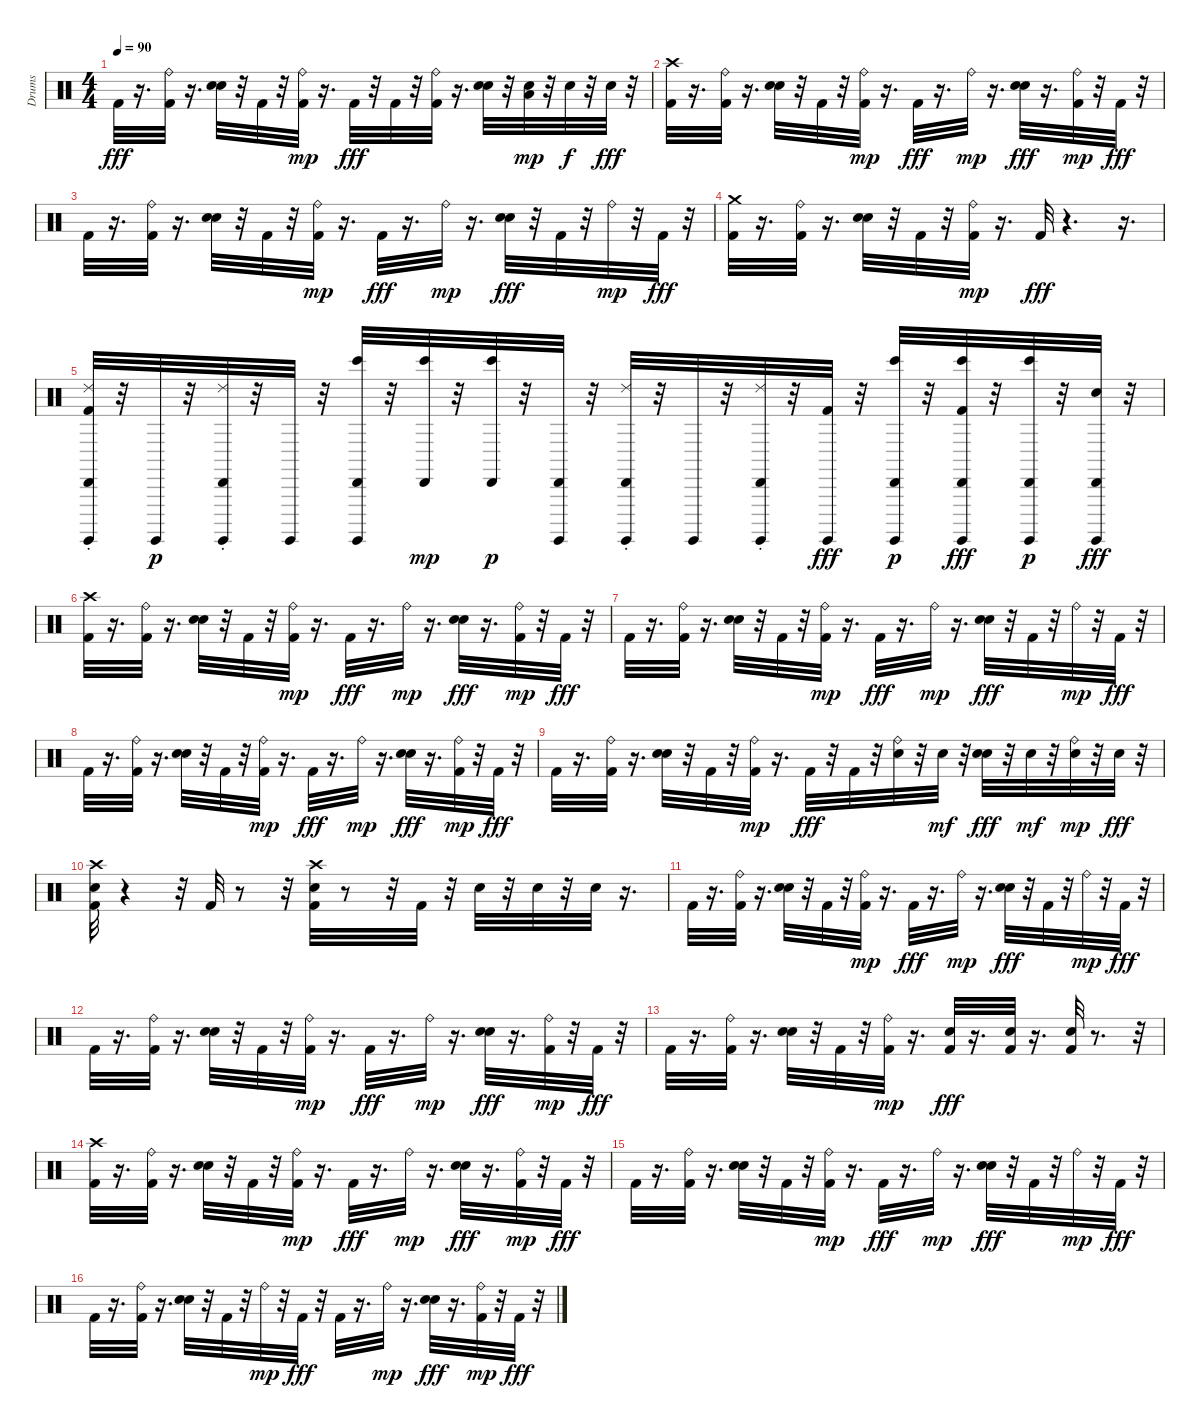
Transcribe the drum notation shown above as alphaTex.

\track ("Drums" "Drums") {instrument percussion}
\staff {score}
\articulation defaults
\ts (4 4)
\tempo 90
\clef neutral
\ks c "Kick (hit) 2".32{dy fff}
r.16{d} ("Ride (bell)" "Kick (hit) 2").32 r.16{d} ("Hand Clap (hit)" "Electric Snare (hit)").32 r.32 "Kick (hit) 2".32 r.32 ("Ride (bell)" "Kick (hit) 2").32{dy mp} r.16{d} "Kick (hit) 2".32{dy fff} r.32 "Kick (hit) 2".32 r.32 ("Ride (bell)" "Kick (hit) 2").32 r.16{d} ("Hand Clap (hit)" "Electric Snare (hit)").32 r.32 ("Low Tom (hit)" "Electric Snare (hit)").32{dy mp} r.32 "Electric Snare (hit)".32{dy f} r.32 "Electric Snare (hit)".32{dy fff} r.32 |
("Crash high (hit)" "Kick (hit) 2").32 r.16{d} ("Ride (bell)" "Kick (hit) 2").32 r.16{d} ("Hand Clap (hit)" "Electric Snare (hit)").32 r.32 "Kick (hit) 2".32 r.32 ("Ride (bell)" "Kick (hit) 2").32{dy mp} r.16{d} "Kick (hit) 2".32{dy fff} r.16{d} "Ride (bell)".32{dy mp} r.16{d} ("Hand Clap (hit)" "Electric Snare (hit)").32{dy fff} r.16{d} ("Ride (bell)" "Kick (hit) 2").32{dy mp} r.32 "Kick (hit) 2".32{dy fff} r.32 |
"Kick (hit) 2".32 r.16{d} ("Ride (bell)" "Kick (hit) 2").32 r.16{d} ("Hand Clap (hit)" "Electric Snare (hit)").32 r.32 "Kick (hit) 2".32 r.32 ("Ride (bell)" "Kick (hit) 2").32{dy mp} r.16{d} "Kick (hit) 2".32{dy fff} r.16{d} "Ride (bell)".32{dy mp} r.16{d} ("Hand Clap (hit)" "Electric Snare (hit)").32{dy fff} r.32 "Kick (hit) 2".32 r.32 "Ride (bell)".32{dy mp} r.32 "Kick (hit) 2".32{dy fff} r.32 |
("Crash medium (hit)" "Kick (hit) 2").32 r.16{d} ("Ride (bell)" "Kick (hit) 2").32 r.16{d} ("Hand Clap (hit)" "Electric Snare (hit)").32 r.32 "Kick (hit) 2".32 r.32 ("Ride (bell)" "Kick (hit) 2").32{dy mp} r.16{d} "Kick (hit) 2".32{dy fff} r.4{d} r.16{d} |
("Cabasa (hit)" "Ride (choke) 2" "Surdo (hit)" "Kick (hit) 2").32 r.32 "Surdo (hit)".32{dy p} r.32 ("Cabasa (hit)" "Ride (choke) 2" "Surdo (hit)").32 r.32 "Surdo (hit)".32 r.32 ("Bongo High (hit)" "Cabasa (hit)" "Surdo (hit)").32 r.32 ("Bongo High (hit)" "Cabasa (hit)").32{dy mp} r.32 ("Bongo High (hit)" "Cabasa (hit)").32{dy p} r.32 ("Cabasa (hit)" "Surdo (hit)").32 r.32 ("Cabasa (hit)" "Ride (choke) 2" "Surdo (hit)").32 r.32 "Surdo (hit)".32 r.32 ("Cabasa (hit)" "Ride (choke) 2" "Surdo (hit)").32 r.32 ("Surdo (hit)" "Kick (hit) 2").32{dy fff} r.32 ("Bongo High (hit)" "Cabasa (hit)" "Surdo (hit)").32{dy p} r.32 ("Bongo High (hit)" "Cabasa (hit)" "Surdo (hit)" "Kick (hit) 2").32{dy fff} r.32 ("Bongo High (hit)" "Cabasa (hit)" "Surdo (hit)").32{dy p} r.32 ("Cabasa (hit)" "Surdo (hit)" "Electric Snare (hit)").32{dy fff} r.32 |
("Crash high (hit)" "Kick (hit) 2").32 r.16{d} ("Ride (bell)" "Kick (hit) 2").32 r.16{d} ("Hand Clap (hit)" "Electric Snare (hit)").32 r.32 "Kick (hit) 2".32 r.32 ("Ride (bell)" "Kick (hit) 2").32{dy mp} r.16{d} "Kick (hit) 2".32{dy fff} r.16{d} "Ride (bell)".32{dy mp} r.16{d} ("Hand Clap (hit)" "Electric Snare (hit)").32{dy fff} r.16{d} ("Ride (bell)" "Kick (hit) 2").32{dy mp} r.32 "Kick (hit) 2".32{dy fff} r.32 |
"Kick (hit) 2".32 r.16{d} ("Ride (bell)" "Kick (hit) 2").32 r.16{d} ("Hand Clap (hit)" "Electric Snare (hit)").32 r.32 "Kick (hit) 2".32 r.32 ("Ride (bell)" "Kick (hit) 2").32{dy mp} r.16{d} "Kick (hit) 2".32{dy fff} r.16{d} "Ride (bell)".32{dy mp} r.16{d} ("Hand Clap (hit)" "Electric Snare (hit)").32{dy fff} r.32 "Kick (hit) 2".32 r.32 "Ride (bell)".32{dy mp} r.32 "Kick (hit) 2".32{dy fff} r.32 |
"Kick (hit) 2".32 r.16{d} ("Ride (bell)" "Kick (hit) 2").32 r.16{d} ("Hand Clap (hit)" "Electric Snare (hit)").32 r.32 "Kick (hit) 2".32 r.32 ("Ride (bell)" "Kick (hit) 2").32{dy mp} r.16{d} "Kick (hit) 2".32{dy fff} r.16{d} "Ride (bell)".32{dy mp} r.16{d} ("Hand Clap (hit)" "Electric Snare (hit)").32{dy fff} r.16{d} ("Ride (bell)" "Kick (hit) 2").32{dy mp} r.32 "Kick (hit) 2".32{dy fff} r.32 |
"Kick (hit) 2".32 r.16{d} ("Ride (bell)" "Kick (hit) 2").32 r.16{d} ("Hand Clap (hit)" "Electric Snare (hit)").32 r.32 "Kick (hit) 2".32 r.32 ("Ride (bell)" "Kick (hit) 2").32{dy mp} r.16{d} "Kick (hit) 2".32{dy fff} r.32 "Kick (hit) 2".32 r.32 ("Ride (bell)" "Electric Snare (hit)").32 r.32 "Electric Snare (hit)".32{dy mf} r.32 ("Hand Clap (hit)" "Electric Snare (hit)").32{dy fff} r.32 "Electric Snare (hit)".32{dy mf} r.32 ("Ride (bell)" "Electric Snare (hit)").32{dy mp} r.32 "Electric Snare (hit)".32{dy fff} r.32 |
("Crash high (hit)" "Electric Snare (hit)" "Kick (hit) 2").32 r.4 r.32 "Kick (hit) 2".32 r.8 r.32 ("Crash high (hit)" "Electric Snare (hit)" "Kick (hit) 2").32 r.8 r.32 "Kick (hit) 2".32 r.32 "Electric Snare (hit)".32 r.32 "Electric Snare (hit)".32 r.32 "Electric Snare (hit)".32 r.16{d} |
"Kick (hit) 2".32 r.16{d} ("Ride (bell)" "Kick (hit) 2").32 r.16{d} ("Hand Clap (hit)" "Electric Snare (hit)").32 r.32 "Kick (hit) 2".32 r.32 ("Ride (bell)" "Kick (hit) 2").32{dy mp} r.16{d} "Kick (hit) 2".32{dy fff} r.16{d} "Ride (bell)".32{dy mp} r.16{d} ("Hand Clap (hit)" "Electric Snare (hit)").32{dy fff} r.32 "Kick (hit) 2".32 r.32 "Ride (bell)".32{dy mp} r.32 "Kick (hit) 2".32{dy fff} r.32 |
"Kick (hit) 2".32 r.16{d} ("Ride (bell)" "Kick (hit) 2").32 r.16{d} ("Hand Clap (hit)" "Electric Snare (hit)").32 r.32 "Kick (hit) 2".32 r.32 ("Ride (bell)" "Kick (hit) 2").32{dy mp} r.16{d} "Kick (hit) 2".32{dy fff} r.16{d} "Ride (bell)".32{dy mp} r.16{d} ("Hand Clap (hit)" "Electric Snare (hit)").32{dy fff} r.16{d} ("Ride (bell)" "Kick (hit) 2").32{dy mp} r.32 "Kick (hit) 2".32{dy fff} r.32 |
"Kick (hit) 2".32 r.16{d} ("Ride (bell)" "Kick (hit) 2").32 r.16{d} ("Hand Clap (hit)" "Electric Snare (hit)").32 r.32 "Kick (hit) 2".32 r.32 ("Ride (bell)" "Kick (hit) 2").32{dy mp} r.16{d} ("Electric Snare (hit)" "Kick (hit) 2").32{dy fff} r.16{d} ("Electric Snare (hit)" "Kick (hit) 2").32 r.16{d} ("Electric Snare (hit)" "Kick (hit) 2").32 r.8{d} r.32 |
("Crash high (hit)" "Kick (hit) 2").32 r.16{d} ("Ride (bell)" "Kick (hit) 2").32 r.16{d} ("Hand Clap (hit)" "Electric Snare (hit)").32 r.32 "Kick (hit) 2".32 r.32 ("Ride (bell)" "Kick (hit) 2").32{dy mp} r.16{d} "Kick (hit) 2".32{dy fff} r.16{d} "Ride (bell)".32{dy mp} r.16{d} ("Hand Clap (hit)" "Electric Snare (hit)").32{dy fff} r.16{d} ("Ride (bell)" "Kick (hit) 2").32{dy mp} r.32 "Kick (hit) 2".32{dy fff} r.32 |
"Kick (hit) 2".32 r.16{d} ("Ride (bell)" "Kick (hit) 2").32 r.16{d} ("Hand Clap (hit)" "Electric Snare (hit)").32 r.32 "Kick (hit) 2".32 r.32 ("Ride (bell)" "Kick (hit) 2").32{dy mp} r.16{d} "Kick (hit) 2".32{dy fff} r.16{d} "Ride (bell)".32{dy mp} r.16{d} ("Hand Clap (hit)" "Electric Snare (hit)").32{dy fff} r.32 "Kick (hit) 2".32 r.32 "Ride (bell)".32{dy mp} r.32 "Kick (hit) 2".32{dy fff} r.32 |
"Kick (hit) 2".32 r.16{d} ("Ride (bell)" "Kick (hit) 2").32 r.16{d} ("Hand Clap (hit)" "Electric Snare (hit)").32 r.32 "Kick (hit) 2".32 r.32 "Ride (bell)".32{dy mp} r.32 "Kick (hit) 2".32{dy fff} r.32 "Kick (hit) 2".32 r.16{d} "Ride (bell)".32{dy mp} r.16{d} ("Hand Clap (hit)" "Electric Snare (hit)").32{dy fff} r.16{d} ("Ride (bell)" "Kick (hit) 2").32{dy mp} r.32 "Kick (hit) 2".32{dy fff} r.32
